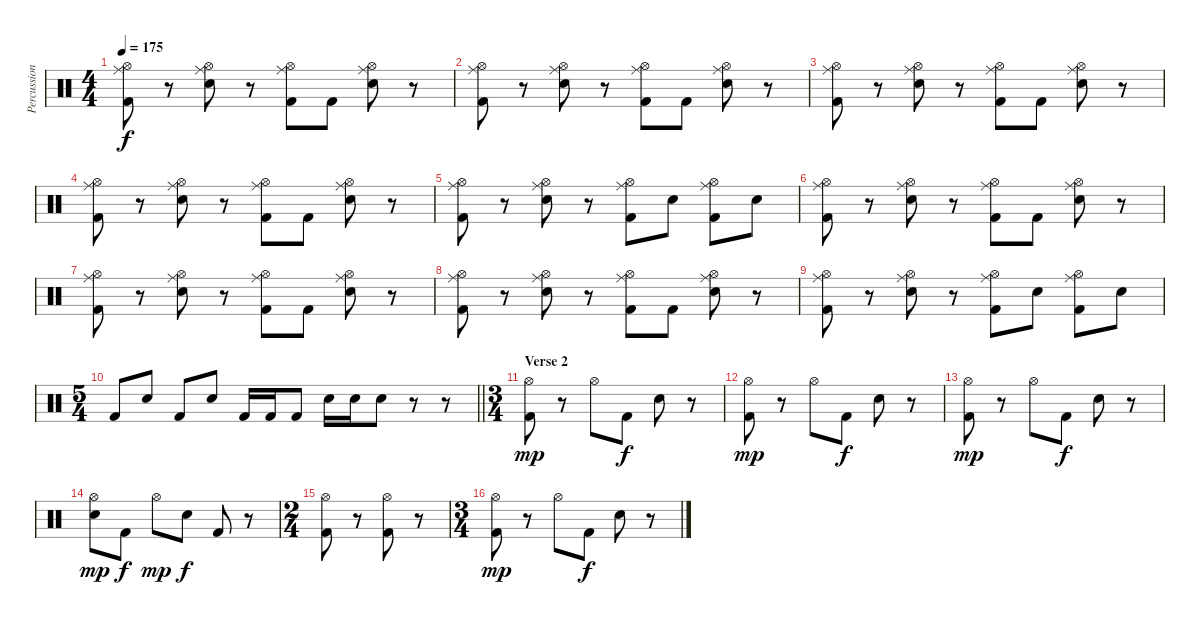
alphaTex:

\track ("Percussion" "Percussion") {instrument percussion}
\staff {score}
\articulation defaults
\ts (4 4)
\tempo 175
\clef neutral
\ks c
("Hi-Hat (open)" "Ride (middle)" "Kick (hit) 2").8{dy f} r.8 ("Hi-Hat (open)" "Ride (middle)" "Snare (hit) 2").8 r.8 ("Hi-Hat (open)" "Ride (middle)" "Kick (hit) 2").8 "Kick (hit) 2".8 ("Hi-Hat (open)" "Ride (middle)" "Snare (hit) 2").8 r.8 |
("Hi-Hat (open)" "Ride (middle)" "Kick (hit) 2").8 r.8 ("Hi-Hat (open)" "Ride (middle)" "Snare (hit) 2").8 r.8 ("Hi-Hat (open)" "Ride (middle)" "Kick (hit) 2").8 "Kick (hit) 2".8 ("Hi-Hat (open)" "Ride (middle)" "Snare (hit) 2").8 r.8 |
("Hi-Hat (open)" "Ride (middle)" "Kick (hit) 2").8 r.8 ("Hi-Hat (open)" "Ride (middle)" "Snare (hit) 2").8 r.8 ("Hi-Hat (open)" "Ride (middle)" "Kick (hit) 2").8 "Kick (hit) 2".8 ("Hi-Hat (open)" "Ride (middle)" "Snare (hit) 2").8 r.8 |
("Hi-Hat (open)" "Ride (middle)" "Kick (hit) 2").8 r.8 ("Hi-Hat (open)" "Ride (middle)" "Snare (hit) 2").8 r.8 ("Hi-Hat (open)" "Ride (middle)" "Kick (hit) 2").8 "Kick (hit) 2".8 ("Hi-Hat (open)" "Ride (middle)" "Snare (hit) 2").8 r.8 |
("Hi-Hat (open)" "Ride (middle)" "Kick (hit) 2").8 r.8 ("Hi-Hat (open)" "Ride (middle)" "Snare (hit) 2").8 r.8 ("Hi-Hat (open)" "Ride (middle)" "Kick (hit) 2").8 "Snare (hit) 2".8 ("Hi-Hat (open)" "Ride (middle)" "Kick (hit) 2").8 "Snare (hit) 2".8 |
("Hi-Hat (open)" "Ride (middle)" "Kick (hit) 2").8 r.8 ("Hi-Hat (open)" "Ride (middle)" "Snare (hit) 2").8 r.8 ("Hi-Hat (open)" "Ride (middle)" "Kick (hit) 2").8 "Kick (hit) 2".8 ("Hi-Hat (open)" "Ride (middle)" "Snare (hit) 2").8 r.8 |
("Hi-Hat (open)" "Ride (middle)" "Kick (hit) 2").8 r.8 ("Hi-Hat (open)" "Ride (middle)" "Snare (hit) 2").8 r.8 ("Hi-Hat (open)" "Ride (middle)" "Kick (hit) 2").8 "Kick (hit) 2".8 ("Hi-Hat (open)" "Ride (middle)" "Snare (hit) 2").8 r.8 |
("Hi-Hat (open)" "Ride (middle)" "Kick (hit) 2").8 r.8 ("Hi-Hat (open)" "Ride (middle)" "Snare (hit) 2").8 r.8 ("Hi-Hat (open)" "Ride (middle)" "Kick (hit) 2").8 "Kick (hit) 2".8 ("Hi-Hat (open)" "Ride (middle)" "Snare (hit) 2").8 r.8 |
("Hi-Hat (open)" "Ride (middle)" "Kick (hit) 2").8 r.8 ("Hi-Hat (open)" "Ride (middle)" "Snare (hit) 2").8 r.8 ("Hi-Hat (open)" "Ride (middle)" "Kick (hit) 2").8 "Snare (hit) 2".8 ("Hi-Hat (open)" "Ride (middle)" "Kick (hit) 2").8 "Snare (hit) 2".8 |
\ts (5 4)
\barLineRight lightlight "Kick (hit) 2".8 "Snare (hit) 2".8 "Kick (hit) 2".8 "Snare (hit) 2".8 "Kick (hit) 2".16 "Kick (hit) 2".16 "Kick (hit) 2".8 "Snare (hit) 2".16 "Snare (hit) 2".16 "Snare (hit) 2".8
r.8 r.8 |
\ts (3 4)
\section ("" "Verse 2")
("Hi-Hat (open)" "Kick (hit) 2").8{dy mp} r.8 "Hi-Hat (open)".8 "Kick (hit) 2".8{dy f} "Snare (hit) 2".8 r.8 |
("Hi-Hat (open)" "Kick (hit) 2").8{dy mp} r.8 "Hi-Hat (open)".8 "Kick (hit) 2".8{dy f} "Snare (hit) 2".8 r.8 |
("Hi-Hat (open)" "Kick (hit) 2").8{dy mp} r.8 "Hi-Hat (open)".8 "Kick (hit) 2".8{dy f} "Snare (hit) 2".8 r.8 |
("Hi-Hat (open)" "Snare (hit) 2").8{dy mp} "Kick (hit) 2".8{dy f} "Hi-Hat (open)".8{dy mp} "Snare (hit) 2".8{dy f} "Kick (hit) 2".8 r.8 |
\ts (2 4)
("Hi-Hat (open)" "Kick (hit) 2").8 r.8 ("Hi-Hat (open)" "Kick (hit) 2").8 r.8 |
\ts (3 4)
("Hi-Hat (open)" "Kick (hit) 2").8{dy mp} r.8 "Hi-Hat (open)".8 "Kick (hit) 2".8{dy f} "Snare (hit) 2".8 r.8
